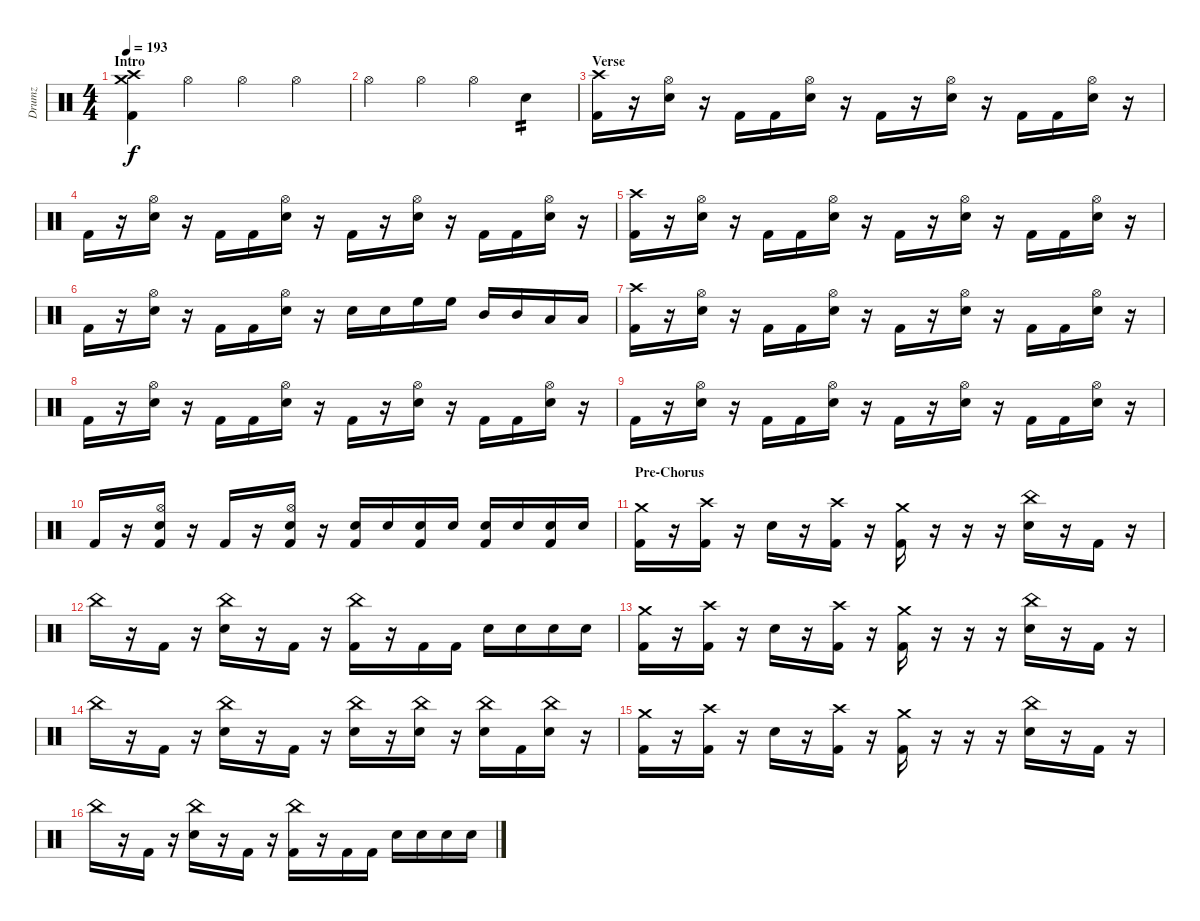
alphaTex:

\track ("Drumz" "Drumz") {instrument percussion}
\staff {score}
\articulation defaults
\ts (4 4)
\section ("" "Intro")
\tempo 193
\clef neutral
\ks c
("Crash medium (hit)" "Crash high (hit)" "Kick (hit) 2").4{dy f} "Hi-Hat (open)".4 "Hi-Hat (open)".4 "Hi-Hat (open)".4 |
"Hi-Hat (open)".4 "Hi-Hat (open)".4 "Hi-Hat (open)".4 "Electric Snare (hit)".4{tp 2} |
\section ("" "Verse")
("Crash high (hit)" "Kick (hit) 2").16 r.16 ("Hi-Hat (open)" "Electric Snare (hit)").16 r.16 "Kick (hit) 2".16 "Kick (hit) 2".16 ("Hi-Hat (open)" "Electric Snare (hit)").16 r.16 "Kick (hit) 2".16 r.16 ("Hi-Hat (open)" "Electric Snare (hit)").16 r.16 "Kick (hit) 2".16 "Kick (hit) 2".16 ("Hi-Hat (open)" "Electric Snare (hit)").16 r.16 |
"Kick (hit) 2".16 r.16 ("Hi-Hat (open)" "Electric Snare (hit)").16 r.16 "Kick (hit) 2".16 "Kick (hit) 2".16 ("Hi-Hat (open)" "Electric Snare (hit)").16 r.16 "Kick (hit) 2".16 r.16 ("Hi-Hat (open)" "Electric Snare (hit)").16 r.16 "Kick (hit) 2".16 "Kick (hit) 2".16 ("Hi-Hat (open)" "Electric Snare (hit)").16 r.16 |
("Crash high (hit)" "Kick (hit) 2").16 r.16 ("Hi-Hat (open)" "Electric Snare (hit)").16 r.16 "Kick (hit) 2".16 "Kick (hit) 2".16 ("Hi-Hat (open)" "Electric Snare (hit)").16 r.16 "Kick (hit) 2".16 r.16 ("Hi-Hat (open)" "Electric Snare (hit)").16 r.16 "Kick (hit) 2".16 "Kick (hit) 2".16 ("Hi-Hat (open)" "Electric Snare (hit)").16 r.16 |
"Kick (hit) 2".16 r.16 ("Hi-Hat (open)" "Electric Snare (hit)").16 r.16 "Kick (hit) 2".16 "Kick (hit) 2".16 ("Hi-Hat (open)" "Electric Snare (hit)").16 r.16 "Electric Snare (hit)".16 "Electric Snare (hit)".16 "High Floor Tom (hit)".16 "High Floor Tom (hit)".16 "Mid Tom (hit)".16 "Mid Tom (hit)".16 "Low Tom (hit)".16 "Low Tom (hit)".16 |
("Crash high (hit)" "Kick (hit) 2").16 r.16 ("Hi-Hat (open)" "Electric Snare (hit)").16 r.16 "Kick (hit) 2".16 "Kick (hit) 2".16 ("Hi-Hat (open)" "Electric Snare (hit)").16 r.16 "Kick (hit) 2".16 r.16 ("Hi-Hat (open)" "Electric Snare (hit)").16 r.16 "Kick (hit) 2".16 "Kick (hit) 2".16 ("Hi-Hat (open)" "Electric Snare (hit)").16 r.16 |
"Kick (hit) 2".16 r.16 ("Hi-Hat (open)" "Electric Snare (hit)").16 r.16 "Kick (hit) 2".16 "Kick (hit) 2".16 ("Hi-Hat (open)" "Electric Snare (hit)").16 r.16 "Kick (hit) 2".16 r.16 ("Hi-Hat (open)" "Electric Snare (hit)").16 r.16 "Kick (hit) 2".16 "Kick (hit) 2".16 ("Hi-Hat (open)" "Electric Snare (hit)").16 r.16 |
"Kick (hit) 2".16 r.16 ("Hi-Hat (open)" "Electric Snare (hit)").16 r.16 "Kick (hit) 2".16 "Kick (hit) 2".16 ("Hi-Hat (open)" "Electric Snare (hit)").16 r.16 "Kick (hit) 2".16 r.16 ("Hi-Hat (open)" "Electric Snare (hit)").16 r.16 "Kick (hit) 2".16 "Kick (hit) 2".16 ("Hi-Hat (open)" "Electric Snare (hit)").16 r.16 |
"Kick (hit) 2".16 r.16 ("Hi-Hat (open)" "Electric Snare (hit)" "Kick (hit) 2").16 r.16 "Kick (hit) 2".16 r.16 ("Hi-Hat (open)" "Electric Snare (hit)" "Kick (hit) 2").16 r.16 ("Electric Snare (hit)" "Kick (hit) 2").16 "Electric Snare (hit)".16 ("Electric Snare (hit)" "Kick (hit) 2").16 "Electric Snare (hit)".16 ("Electric Snare (hit)" "Kick (hit) 2").16 "Electric Snare (hit)".16 ("Electric Snare (hit)" "Kick (hit) 2").16 "Electric Snare (hit)".16 |
\section ("" "Pre-Chorus")
("Crash medium (hit)" "Kick (hit) 2").16 r.16 ("Crash high (hit)" "Kick (hit) 2").16 r.16 "Electric Snare (hit)".16 r.16 ("Crash high (hit)" "Kick (hit) 2").16 r.16 ("Crash medium (hit)" "Kick (hit) 2").16 r.16 r.16 r.16 ("China (hit)" "Electric Snare (hit)").16 r.16 "Kick (hit) 2".16 r.16 |
"China (hit)".16 r.16 "Kick (hit) 2".16 r.16 ("China (hit)" "Electric Snare (hit)").16 r.16 "Kick (hit) 2".16 r.16 ("China (hit)" "Kick (hit) 2").16 r.16 "Kick (hit) 2".16 "Kick (hit) 2".16 "Electric Snare (hit)".16 "Electric Snare (hit)".16 "Electric Snare (hit)".16 "Electric Snare (hit)".16 |
("Crash medium (hit)" "Kick (hit) 2").16 r.16 ("Crash high (hit)" "Kick (hit) 2").16 r.16 "Electric Snare (hit)".16 r.16 ("Crash high (hit)" "Kick (hit) 2").16 r.16 ("Crash medium (hit)" "Kick (hit) 2").16 r.16 r.16 r.16 ("China (hit)" "Electric Snare (hit)").16 r.16 "Kick (hit) 2".16 r.16 |
"China (hit)".16 r.16 "Kick (hit) 2".16 r.16 ("China (hit)" "Electric Snare (hit)").16 r.16 "Kick (hit) 2".16 r.16 ("China (hit)" "Electric Snare (hit)").16 r.16 ("China (hit)" "Electric Snare (hit)").16 r.16 ("China (hit)" "Electric Snare (hit)").16 "Kick (hit) 2".16 ("China (hit)" "Electric Snare (hit)").16 r.16 |
("Crash medium (hit)" "Kick (hit) 2").16 r.16 ("Crash high (hit)" "Kick (hit) 2").16 r.16 "Electric Snare (hit)".16 r.16 ("Crash high (hit)" "Kick (hit) 2").16 r.16 ("Crash medium (hit)" "Kick (hit) 2").16 r.16 r.16 r.16 ("China (hit)" "Electric Snare (hit)").16 r.16 "Kick (hit) 2".16 r.16 |
"China (hit)".16 r.16 "Kick (hit) 2".16 r.16 ("China (hit)" "Electric Snare (hit)").16 r.16 "Kick (hit) 2".16 r.16 ("China (hit)" "Kick (hit) 2").16 r.16 "Kick (hit) 2".16 "Kick (hit) 2".16 "Electric Snare (hit)".16 "Electric Snare (hit)".16 "Electric Snare (hit)".16 "Electric Snare (hit)".16
